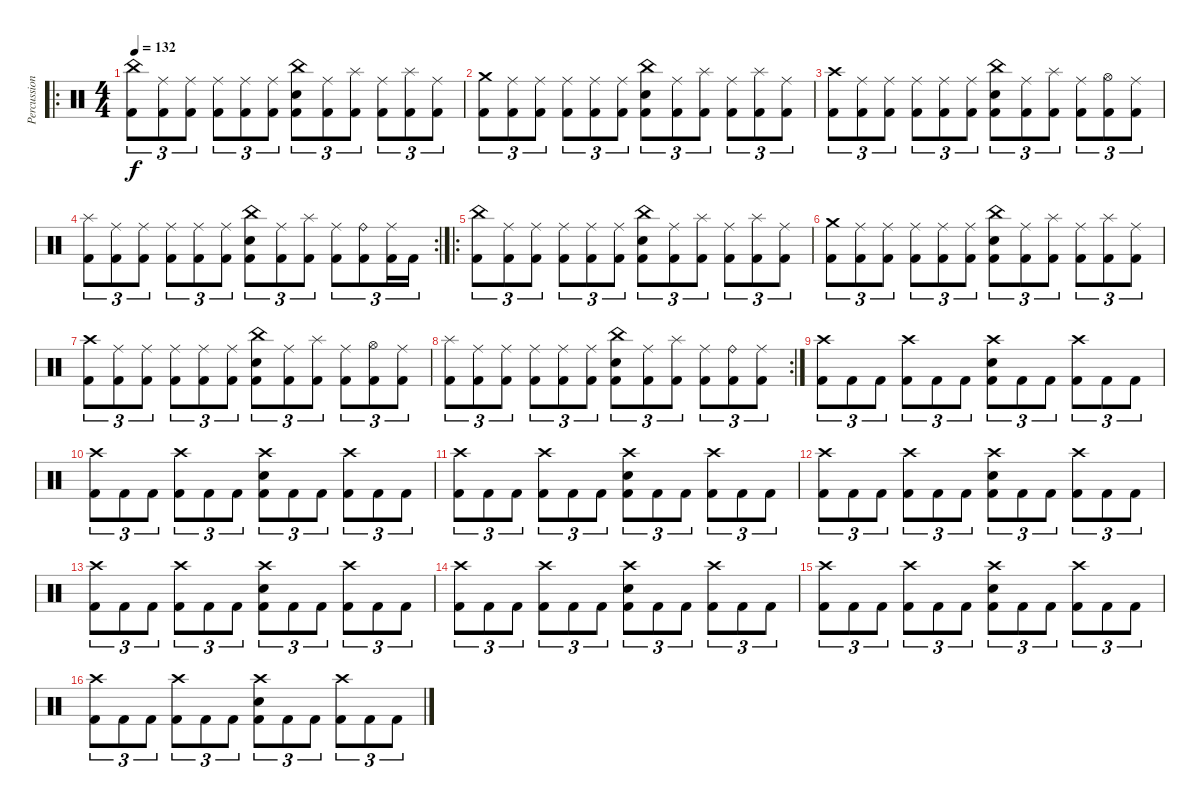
\track ("Percussion" "Percussion") {instrument percussion}
\staff {score}
\articulation defaults
\ro
\ts (4 4)
\tempo 132
\clef neutral
\ks c
("China (hit)" "Kick (hit) 2").8{tu (3 2) dy f} ("Ride (middle)" "Kick (hit) 2").8{tu (3 2)} ("Ride (middle)" "Kick (hit) 2").8{tu (3 2)} ("Ride (middle)" "Kick (hit) 2").8{tu (3 2)} ("Ride (middle)" "Kick (hit) 2").8{tu (3 2)} ("Ride (middle)" "Kick (hit) 2").8{tu (3 2)} ("China (hit)" "Electric Snare (hit)" "Kick (hit) 2").8{tu (3 2)} ("Ride (middle)" "Kick (hit) 2").8{tu (3 2)} ("Splash (hit)" "Kick (hit) 2").8{tu (3 2)} ("Ride (middle)" "Kick (hit) 2").8{tu (3 2)} ("Splash (hit)" "Kick (hit) 2").8{tu (3 2)} ("Ride (middle)" "Kick (hit) 2").8{tu (3 2)} |
("Crash medium (hit)" "Kick (hit) 2").8{tu (3 2)} ("Ride (middle)" "Kick (hit) 2").8{tu (3 2)} ("Ride (middle)" "Kick (hit) 2").8{tu (3 2)} ("Ride (middle)" "Kick (hit) 2").8{tu (3 2)} ("Ride (middle)" "Kick (hit) 2").8{tu (3 2)} ("Ride (middle)" "Kick (hit) 2").8{tu (3 2)} ("China (hit)" "Electric Snare (hit)" "Kick (hit) 2").8{tu (3 2)} ("Ride (middle)" "Kick (hit) 2").8{tu (3 2)} ("Splash (hit)" "Kick (hit) 2").8{tu (3 2)} ("Ride (middle)" "Kick (hit) 2").8{tu (3 2)} ("Splash (hit)" "Kick (hit) 2").8{tu (3 2)} ("Ride (middle)" "Kick (hit) 2").8{tu (3 2)} |
("Crash high (hit)" "Kick (hit) 2").8{tu (3 2)} ("Ride (middle)" "Kick (hit) 2").8{tu (3 2)} ("Ride (middle)" "Kick (hit) 2").8{tu (3 2)} ("Ride (middle)" "Kick (hit) 2").8{tu (3 2)} ("Ride (middle)" "Kick (hit) 2").8{tu (3 2)} ("Ride (middle)" "Kick (hit) 2").8{tu (3 2)} ("China (hit)" "Electric Snare (hit)" "Kick (hit) 2").8{tu (3 2)} ("Ride (middle)" "Kick (hit) 2").8{tu (3 2)} ("Splash (hit)" "Kick (hit) 2").8{tu (3 2)} ("Ride (middle)" "Kick (hit) 2").8{tu (3 2)} ("Hi-Hat (open)" "Kick (hit) 2").8{tu (3 2)} ("Ride (middle)" "Kick (hit) 2").8{tu (3 2)} |
\rc 2
("Splash (hit)" "Kick (hit) 2").8{tu (3 2)} ("Ride (middle)" "Kick (hit) 2").8{tu (3 2)} ("Ride (middle)" "Kick (hit) 2").8{tu (3 2)} ("Ride (middle)" "Kick (hit) 2").8{tu (3 2)} ("Ride (middle)" "Kick (hit) 2").8{tu (3 2)} ("Ride (middle)" "Kick (hit) 2").8{tu (3 2)} ("China (hit)" "Electric Snare (hit)" "Kick (hit) 2").8{tu (3 2)} ("Ride (middle)" "Kick (hit) 2").8{tu (3 2)} ("Splash (hit)" "Kick (hit) 2").8{tu (3 2)} ("Ride (middle)" "Kick (hit) 2").8{tu (3 2)} ("Ride (bell)" "Kick (hit) 2").8{tu (3 2)} ("Ride (middle)" "Kick (hit) 2").16{tu (3 2)} "Kick (hit) 2".16{tu (3 2)} |
\ro
("China (hit)" "Kick (hit) 2").8{tu (3 2)} ("Ride (middle)" "Kick (hit) 2").8{tu (3 2)} ("Ride (middle)" "Kick (hit) 2").8{tu (3 2)} ("Ride (middle)" "Kick (hit) 2").8{tu (3 2)} ("Ride (middle)" "Kick (hit) 2").8{tu (3 2)} ("Ride (middle)" "Kick (hit) 2").8{tu (3 2)} ("China (hit)" "Electric Snare (hit)" "Kick (hit) 2").8{tu (3 2)} ("Ride (middle)" "Kick (hit) 2").8{tu (3 2)} ("Splash (hit)" "Kick (hit) 2").8{tu (3 2)} ("Ride (middle)" "Kick (hit) 2").8{tu (3 2)} ("Splash (hit)" "Kick (hit) 2").8{tu (3 2)} ("Ride (middle)" "Kick (hit) 2").8{tu (3 2)} |
("Crash medium (hit)" "Kick (hit) 2").8{tu (3 2)} ("Ride (middle)" "Kick (hit) 2").8{tu (3 2)} ("Ride (middle)" "Kick (hit) 2").8{tu (3 2)} ("Ride (middle)" "Kick (hit) 2").8{tu (3 2)} ("Ride (middle)" "Kick (hit) 2").8{tu (3 2)} ("Ride (middle)" "Kick (hit) 2").8{tu (3 2)} ("China (hit)" "Electric Snare (hit)" "Kick (hit) 2").8{tu (3 2)} ("Ride (middle)" "Kick (hit) 2").8{tu (3 2)} ("Splash (hit)" "Kick (hit) 2").8{tu (3 2)} ("Ride (middle)" "Kick (hit) 2").8{tu (3 2)} ("Splash (hit)" "Kick (hit) 2").8{tu (3 2)} ("Ride (middle)" "Kick (hit) 2").8{tu (3 2)} |
("Crash high (hit)" "Kick (hit) 2").8{tu (3 2)} ("Ride (middle)" "Kick (hit) 2").8{tu (3 2)} ("Ride (middle)" "Kick (hit) 2").8{tu (3 2)} ("Ride (middle)" "Kick (hit) 2").8{tu (3 2)} ("Ride (middle)" "Kick (hit) 2").8{tu (3 2)} ("Ride (middle)" "Kick (hit) 2").8{tu (3 2)} ("China (hit)" "Electric Snare (hit)" "Kick (hit) 2").8{tu (3 2)} ("Ride (middle)" "Kick (hit) 2").8{tu (3 2)} ("Splash (hit)" "Kick (hit) 2").8{tu (3 2)} ("Ride (middle)" "Kick (hit) 2").8{tu (3 2)} ("Hi-Hat (open)" "Kick (hit) 2").8{tu (3 2)} ("Ride (middle)" "Kick (hit) 2").8{tu (3 2)} |
\rc 2
("Splash (hit)" "Kick (hit) 2").8{tu (3 2)} ("Ride (middle)" "Kick (hit) 2").8{tu (3 2)} ("Ride (middle)" "Kick (hit) 2").8{tu (3 2)} ("Ride (middle)" "Kick (hit) 2").8{tu (3 2)} ("Ride (middle)" "Kick (hit) 2").8{tu (3 2)} ("Ride (middle)" "Kick (hit) 2").8{tu (3 2)} ("China (hit)" "Electric Snare (hit)" "Kick (hit) 2").8{tu (3 2)} ("Ride (middle)" "Kick (hit) 2").8{tu (3 2)} ("Splash (hit)" "Kick (hit) 2").8{tu (3 2)} ("Ride (middle)" "Kick (hit) 2").8{tu (3 2)} ("Ride (bell)" "Kick (hit) 2").8{tu (3 2)} ("Ride (middle)" "Kick (hit) 2").8{tu (3 2)} |
("Kick (hit) 2" "Crash high (hit)").8{tu (3 2)} "Kick (hit) 2".8{tu (3 2)} "Kick (hit) 2".8{tu (3 2)} ("Kick (hit) 2" "Crash high (hit)").8{tu (3 2)} "Kick (hit) 2".8{tu (3 2)} "Kick (hit) 2".8{tu (3 2)} ("Kick (hit) 2" "Electric Snare (hit)" "Crash high (hit)").8{tu (3 2)} "Kick (hit) 2".8{tu (3 2)} "Kick (hit) 2".8{tu (3 2)} ("Kick (hit) 2" "Crash high (hit)").8{tu (3 2)} "Kick (hit) 2".8{tu (3 2)} "Kick (hit) 2".8{tu (3 2)} |
("Kick (hit) 2" "Crash high (hit)").8{tu (3 2)} "Kick (hit) 2".8{tu (3 2)} "Kick (hit) 2".8{tu (3 2)} ("Kick (hit) 2" "Crash high (hit)").8{tu (3 2)} "Kick (hit) 2".8{tu (3 2)} "Kick (hit) 2".8{tu (3 2)} ("Kick (hit) 2" "Electric Snare (hit)" "Crash high (hit)").8{tu (3 2)} "Kick (hit) 2".8{tu (3 2)} "Kick (hit) 2".8{tu (3 2)} ("Kick (hit) 2" "Crash high (hit)").8{tu (3 2)} "Kick (hit) 2".8{tu (3 2)} "Kick (hit) 2".8{tu (3 2)} |
("Kick (hit) 2" "Crash high (hit)").8{tu (3 2)} "Kick (hit) 2".8{tu (3 2)} "Kick (hit) 2".8{tu (3 2)} ("Kick (hit) 2" "Crash high (hit)").8{tu (3 2)} "Kick (hit) 2".8{tu (3 2)} "Kick (hit) 2".8{tu (3 2)} ("Kick (hit) 2" "Electric Snare (hit)" "Crash high (hit)").8{tu (3 2)} "Kick (hit) 2".8{tu (3 2)} "Kick (hit) 2".8{tu (3 2)} ("Kick (hit) 2" "Crash high (hit)").8{tu (3 2)} "Kick (hit) 2".8{tu (3 2)} "Kick (hit) 2".8{tu (3 2)} |
("Kick (hit) 2" "Crash high (hit)").8{tu (3 2)} "Kick (hit) 2".8{tu (3 2)} "Kick (hit) 2".8{tu (3 2)} ("Kick (hit) 2" "Crash high (hit)").8{tu (3 2)} "Kick (hit) 2".8{tu (3 2)} "Kick (hit) 2".8{tu (3 2)} ("Kick (hit) 2" "Electric Snare (hit)" "Crash high (hit)").8{tu (3 2)} "Kick (hit) 2".8{tu (3 2)} "Kick (hit) 2".8{tu (3 2)} ("Kick (hit) 2" "Crash high (hit)").8{tu (3 2)} "Kick (hit) 2".8{tu (3 2)} "Kick (hit) 2".8{tu (3 2)} |
("Kick (hit) 2" "Crash high (hit)").8{tu (3 2)} "Kick (hit) 2".8{tu (3 2)} "Kick (hit) 2".8{tu (3 2)} ("Kick (hit) 2" "Crash high (hit)").8{tu (3 2)} "Kick (hit) 2".8{tu (3 2)} "Kick (hit) 2".8{tu (3 2)} ("Kick (hit) 2" "Electric Snare (hit)" "Crash high (hit)").8{tu (3 2)} "Kick (hit) 2".8{tu (3 2)} "Kick (hit) 2".8{tu (3 2)} ("Kick (hit) 2" "Crash high (hit)").8{tu (3 2)} "Kick (hit) 2".8{tu (3 2)} "Kick (hit) 2".8{tu (3 2)} |
("Kick (hit) 2" "Crash high (hit)").8{tu (3 2)} "Kick (hit) 2".8{tu (3 2)} "Kick (hit) 2".8{tu (3 2)} ("Kick (hit) 2" "Crash high (hit)").8{tu (3 2)} "Kick (hit) 2".8{tu (3 2)} "Kick (hit) 2".8{tu (3 2)} ("Kick (hit) 2" "Electric Snare (hit)" "Crash high (hit)").8{tu (3 2)} "Kick (hit) 2".8{tu (3 2)} "Kick (hit) 2".8{tu (3 2)} ("Kick (hit) 2" "Crash high (hit)").8{tu (3 2)} "Kick (hit) 2".8{tu (3 2)} "Kick (hit) 2".8{tu (3 2)} |
("Kick (hit) 2" "Crash high (hit)").8{tu (3 2)} "Kick (hit) 2".8{tu (3 2)} "Kick (hit) 2".8{tu (3 2)} ("Kick (hit) 2" "Crash high (hit)").8{tu (3 2)} "Kick (hit) 2".8{tu (3 2)} "Kick (hit) 2".8{tu (3 2)} ("Kick (hit) 2" "Electric Snare (hit)" "Crash high (hit)").8{tu (3 2)} "Kick (hit) 2".8{tu (3 2)} "Kick (hit) 2".8{tu (3 2)} ("Kick (hit) 2" "Crash high (hit)").8{tu (3 2)} "Kick (hit) 2".8{tu (3 2)} "Kick (hit) 2".8{tu (3 2)} |
("Kick (hit) 2" "Crash high (hit)").8{tu (3 2)} "Kick (hit) 2".8{tu (3 2)} "Kick (hit) 2".8{tu (3 2)} ("Kick (hit) 2" "Crash high (hit)").8{tu (3 2)} "Kick (hit) 2".8{tu (3 2)} "Kick (hit) 2".8{tu (3 2)} ("Kick (hit) 2" "Electric Snare (hit)" "Crash high (hit)").8{tu (3 2)} "Kick (hit) 2".8{tu (3 2)} "Kick (hit) 2".8{tu (3 2)} ("Kick (hit) 2" "Crash high (hit)").8{tu (3 2)} "Kick (hit) 2".8{tu (3 2)} "Kick (hit) 2".8{tu (3 2)}
